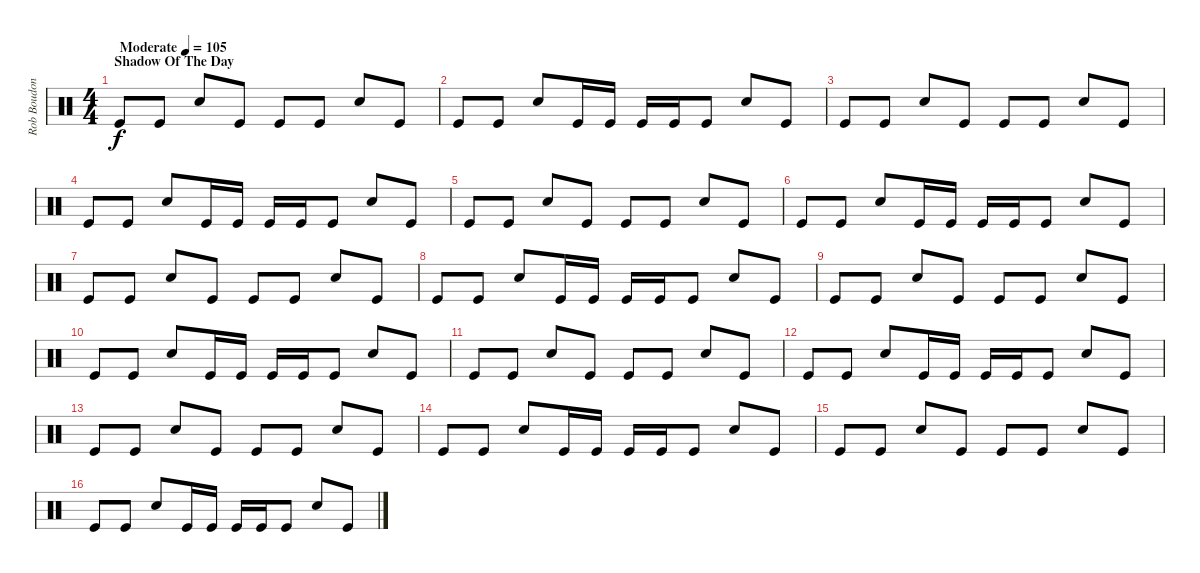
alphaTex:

\track ("Rob Boudon [Drums]" "Rob Boudon") {instrument percussion}
\staff {score}
\articulation defaults
\ts (4 4)
\section ("" "Shadow Of The Day")
\tempo (105 "Moderate")
\clef neutral
\ks c "Kick (hit)".8{dy f} "Kick (hit)".8 "Electric Snare (hit)".8 "Kick (hit)".8 "Kick (hit)".8 "Kick (hit)".8 "Electric Snare (hit)".8 "Kick (hit)".8
|
"Kick (hit)".8 "Kick (hit)".8 "Electric Snare (hit)".8 "Kick (hit)".16 "Kick (hit)".16 "Kick (hit)".16 "Kick (hit)".16 "Kick (hit)".8 "Electric Snare (hit)".8 "Kick (hit)".8 |
"Kick (hit)".8 "Kick (hit)".8 "Electric Snare (hit)".8 "Kick (hit)".8 "Kick (hit)".8 "Kick (hit)".8 "Electric Snare (hit)".8 "Kick (hit)".8 |
"Kick (hit)".8 "Kick (hit)".8 "Electric Snare (hit)".8 "Kick (hit)".16 "Kick (hit)".16 "Kick (hit)".16 "Kick (hit)".16 "Kick (hit)".8 "Electric Snare (hit)".8 "Kick (hit)".8 |
"Kick (hit)".8 "Kick (hit)".8 "Electric Snare (hit)".8 "Kick (hit)".8 "Kick (hit)".8 "Kick (hit)".8 "Electric Snare (hit)".8 "Kick (hit)".8 |
"Kick (hit)".8 "Kick (hit)".8 "Electric Snare (hit)".8 "Kick (hit)".16 "Kick (hit)".16 "Kick (hit)".16 "Kick (hit)".16 "Kick (hit)".8 "Electric Snare (hit)".8 "Kick (hit)".8 |
"Kick (hit)".8 "Kick (hit)".8 "Electric Snare (hit)".8 "Kick (hit)".8 "Kick (hit)".8 "Kick (hit)".8 "Electric Snare (hit)".8 "Kick (hit)".8 |
"Kick (hit)".8 "Kick (hit)".8 "Electric Snare (hit)".8 "Kick (hit)".16 "Kick (hit)".16 "Kick (hit)".16 "Kick (hit)".16 "Kick (hit)".8 "Electric Snare (hit)".8 "Kick (hit)".8 |
"Kick (hit)".8 "Kick (hit)".8 "Electric Snare (hit)".8 "Kick (hit)".8 "Kick (hit)".8 "Kick (hit)".8 "Electric Snare (hit)".8 "Kick (hit)".8 |
"Kick (hit)".8 "Kick (hit)".8 "Electric Snare (hit)".8 "Kick (hit)".16 "Kick (hit)".16 "Kick (hit)".16 "Kick (hit)".16 "Kick (hit)".8 "Electric Snare (hit)".8 "Kick (hit)".8 |
"Kick (hit)".8 "Kick (hit)".8 "Electric Snare (hit)".8 "Kick (hit)".8 "Kick (hit)".8 "Kick (hit)".8 "Electric Snare (hit)".8 "Kick (hit)".8 |
"Kick (hit)".8 "Kick (hit)".8 "Electric Snare (hit)".8 "Kick (hit)".16 "Kick (hit)".16 "Kick (hit)".16 "Kick (hit)".16 "Kick (hit)".8 "Electric Snare (hit)".8 "Kick (hit)".8 |
"Kick (hit)".8 "Kick (hit)".8 "Electric Snare (hit)".8 "Kick (hit)".8 "Kick (hit)".8 "Kick (hit)".8 "Electric Snare (hit)".8 "Kick (hit)".8 |
"Kick (hit)".8 "Kick (hit)".8 "Electric Snare (hit)".8 "Kick (hit)".16 "Kick (hit)".16 "Kick (hit)".16 "Kick (hit)".16 "Kick (hit)".8 "Electric Snare (hit)".8 "Kick (hit)".8 |
"Kick (hit)".8 "Kick (hit)".8 "Electric Snare (hit)".8 "Kick (hit)".8 "Kick (hit)".8 "Kick (hit)".8 "Electric Snare (hit)".8 "Kick (hit)".8 |
"Kick (hit)".8 "Kick (hit)".8 "Electric Snare (hit)".8 "Kick (hit)".16 "Kick (hit)".16 "Kick (hit)".16 "Kick (hit)".16 "Kick (hit)".8 "Electric Snare (hit)".8 "Kick (hit)".8
